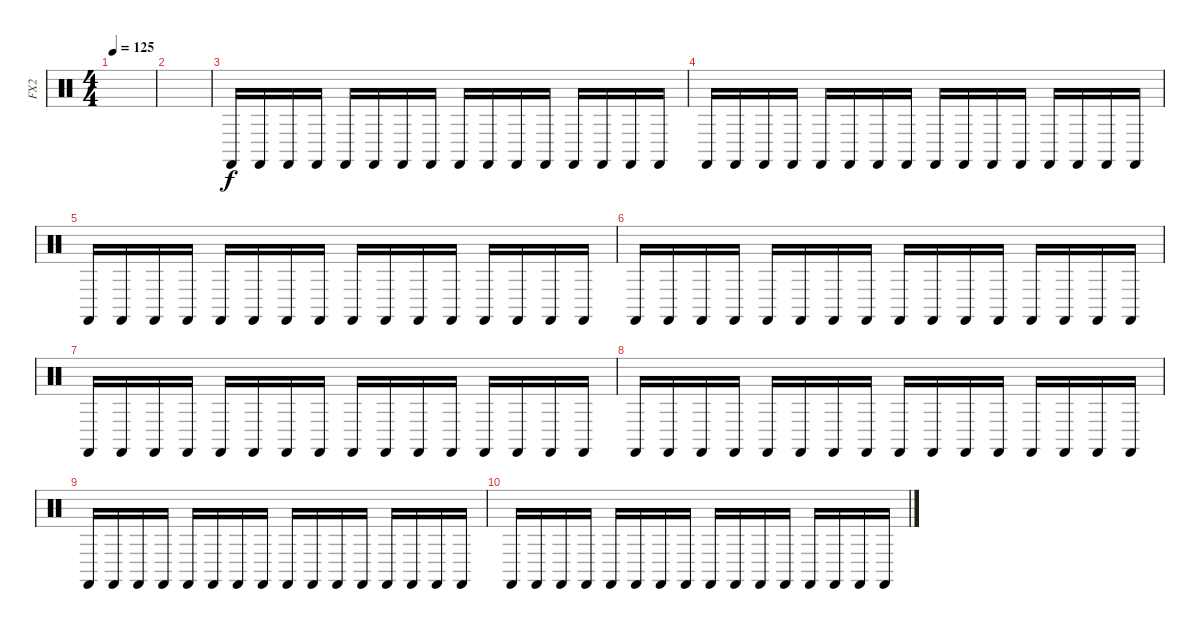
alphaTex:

\track ("FX2" "FX2") {instrument percussion}
\staff {score}
\articulation defaults
\ts (4 4)
\tempo 125
\clef neutral
\ks c
|
|
"Castanets (hit)".16 "Castanets (hit)".16 "Castanets (hit)".16 "Castanets (hit)".16 "Castanets (hit)".16 "Castanets (hit)".16 "Castanets (hit)".16 "Castanets (hit)".16 "Castanets (hit)".16 "Castanets (hit)".16 "Castanets (hit)".16 "Castanets (hit)".16 "Castanets (hit)".16 "Castanets (hit)".16 "Castanets (hit)".16 "Castanets (hit)".16 |
"Castanets (hit)".16 "Castanets (hit)".16 "Castanets (hit)".16 "Castanets (hit)".16 "Castanets (hit)".16 "Castanets (hit)".16 "Castanets (hit)".16 "Castanets (hit)".16 "Castanets (hit)".16 "Castanets (hit)".16 "Castanets (hit)".16 "Castanets (hit)".16 "Castanets (hit)".16 "Castanets (hit)".16 "Castanets (hit)".16 "Castanets (hit)".16 |
"Castanets (hit)".16 "Castanets (hit)".16 "Castanets (hit)".16 "Castanets (hit)".16 "Castanets (hit)".16 "Castanets (hit)".16 "Castanets (hit)".16 "Castanets (hit)".16 "Castanets (hit)".16 "Castanets (hit)".16 "Castanets (hit)".16 "Castanets (hit)".16 "Castanets (hit)".16 "Castanets (hit)".16 "Castanets (hit)".16 "Castanets (hit)".16 |
"Castanets (hit)".16 "Castanets (hit)".16 "Castanets (hit)".16 "Castanets (hit)".16 "Castanets (hit)".16 "Castanets (hit)".16 "Castanets (hit)".16 "Castanets (hit)".16 "Castanets (hit)".16 "Castanets (hit)".16 "Castanets (hit)".16 "Castanets (hit)".16 "Castanets (hit)".16 "Castanets (hit)".16 "Castanets (hit)".16 "Castanets (hit)".16 |
"Castanets (hit)".16 "Castanets (hit)".16 "Castanets (hit)".16 "Castanets (hit)".16 "Castanets (hit)".16 "Castanets (hit)".16 "Castanets (hit)".16 "Castanets (hit)".16 "Castanets (hit)".16 "Castanets (hit)".16 "Castanets (hit)".16 "Castanets (hit)".16 "Castanets (hit)".16 "Castanets (hit)".16 "Castanets (hit)".16 "Castanets (hit)".16 |
"Castanets (hit)".16 "Castanets (hit)".16 "Castanets (hit)".16 "Castanets (hit)".16 "Castanets (hit)".16 "Castanets (hit)".16 "Castanets (hit)".16 "Castanets (hit)".16 "Castanets (hit)".16 "Castanets (hit)".16 "Castanets (hit)".16 "Castanets (hit)".16 "Castanets (hit)".16 "Castanets (hit)".16 "Castanets (hit)".16 "Castanets (hit)".16 |
"Castanets (hit)".16 "Castanets (hit)".16 "Castanets (hit)".16 "Castanets (hit)".16 "Castanets (hit)".16 "Castanets (hit)".16 "Castanets (hit)".16 "Castanets (hit)".16 "Castanets (hit)".16 "Castanets (hit)".16 "Castanets (hit)".16 "Castanets (hit)".16 "Castanets (hit)".16 "Castanets (hit)".16 "Castanets (hit)".16 "Castanets (hit)".16 |
"Castanets (hit)".16 "Castanets (hit)".16 "Castanets (hit)".16 "Castanets (hit)".16 "Castanets (hit)".16 "Castanets (hit)".16 "Castanets (hit)".16 "Castanets (hit)".16 "Castanets (hit)".16 "Castanets (hit)".16 "Castanets (hit)".16 "Castanets (hit)".16 "Castanets (hit)".16 "Castanets (hit)".16 "Castanets (hit)".16 "Castanets (hit)".16
